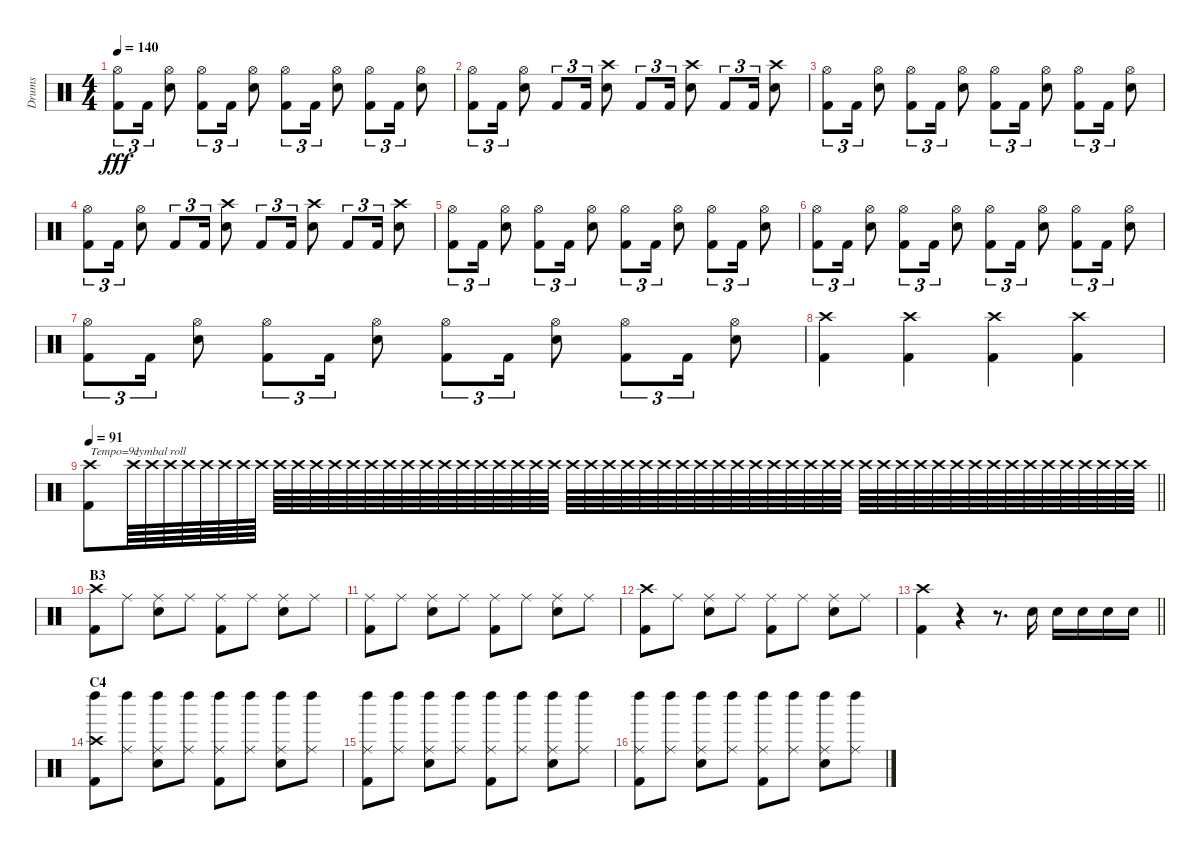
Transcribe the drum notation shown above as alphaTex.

\track ("Drums" "Drums") {instrument percussion}
\staff {score}
\articulation defaults
\ts (4 4)
\tempo 140
\clef neutral
\ks c
("Hi-Hat (open)" "Kick (hit) 2").8{tu (3 2) dy fff} "Kick (hit) 2".16{tu (3 2)} ("Hi-Hat (open)" "Snare (hit) 2").8 ("Hi-Hat (open)" "Kick (hit) 2").8{tu (3 2)} "Kick (hit) 2".16{tu (3 2)} ("Hi-Hat (open)" "Snare (hit) 2").8 ("Hi-Hat (open)" "Kick (hit) 2").8{tu (3 2)} "Kick (hit) 2".16{tu (3 2)} ("Hi-Hat (open)" "Snare (hit) 2").8 ("Hi-Hat (open)" "Kick (hit) 2").8{tu (3 2)} "Kick (hit) 2".16{tu (3 2)} ("Hi-Hat (open)" "Snare (hit) 2").8 |
("Hi-Hat (open)" "Kick (hit) 2").8{tu (3 2)} "Kick (hit) 2".16{tu (3 2)} ("Hi-Hat (open)" "Snare (hit) 2").8 "Kick (hit) 2".8{tu (3 2)} "Kick (hit) 2".16{tu (3 2)} ("Crash high (hit)" "Snare (hit) 2").8 "Kick (hit) 2".8{tu (3 2)} "Kick (hit) 2".16{tu (3 2)} ("Crash high (hit)" "Snare (hit) 2").8 "Kick (hit) 2".8{tu (3 2)} "Kick (hit) 2".16{tu (3 2)} ("Crash high (hit)" "Snare (hit) 2").8 |
("Hi-Hat (open)" "Kick (hit) 2").8{tu (3 2)} "Kick (hit) 2".16{tu (3 2)} ("Hi-Hat (open)" "Snare (hit) 2").8 ("Hi-Hat (open)" "Kick (hit) 2").8{tu (3 2)} "Kick (hit) 2".16{tu (3 2)} ("Hi-Hat (open)" "Snare (hit) 2").8 ("Hi-Hat (open)" "Kick (hit) 2").8{tu (3 2)} "Kick (hit) 2".16{tu (3 2)} ("Hi-Hat (open)" "Snare (hit) 2").8 ("Hi-Hat (open)" "Kick (hit) 2").8{tu (3 2)} "Kick (hit) 2".16{tu (3 2)} ("Hi-Hat (open)" "Snare (hit) 2").8 |
("Hi-Hat (open)" "Kick (hit) 2").8{tu (3 2)} "Kick (hit) 2".16{tu (3 2)} ("Hi-Hat (open)" "Snare (hit) 2").8 "Kick (hit) 2".8{tu (3 2)} "Kick (hit) 2".16{tu (3 2)} ("Crash high (hit)" "Snare (hit) 2").8 "Kick (hit) 2".8{tu (3 2)} "Kick (hit) 2".16{tu (3 2)} ("Crash high (hit)" "Snare (hit) 2").8 "Kick (hit) 2".8{tu (3 2)} "Kick (hit) 2".16{tu (3 2)} ("Crash high (hit)" "Snare (hit) 2").8 |
("Hi-Hat (open)" "Kick (hit) 2").8{tu (3 2)} "Kick (hit) 2".16{tu (3 2)} ("Hi-Hat (open)" "Snare (hit) 2").8 ("Hi-Hat (open)" "Kick (hit) 2").8{tu (3 2)} "Kick (hit) 2".16{tu (3 2)} ("Hi-Hat (open)" "Snare (hit) 2").8 ("Hi-Hat (open)" "Kick (hit) 2").8{tu (3 2)} "Kick (hit) 2".16{tu (3 2)} ("Hi-Hat (open)" "Snare (hit) 2").8 ("Hi-Hat (open)" "Kick (hit) 2").8{tu (3 2)} "Kick (hit) 2".16{tu (3 2)} ("Hi-Hat (open)" "Snare (hit) 2").8 |
("Hi-Hat (open)" "Kick (hit) 2").8{tu (3 2)} "Kick (hit) 2".16{tu (3 2)} ("Hi-Hat (open)" "Snare (hit) 2").8 ("Hi-Hat (open)" "Kick (hit) 2").8{tu (3 2)} "Kick (hit) 2".16{tu (3 2)} ("Hi-Hat (open)" "Snare (hit) 2").8 ("Hi-Hat (open)" "Kick (hit) 2").8{tu (3 2)} "Kick (hit) 2".16{tu (3 2)} ("Hi-Hat (open)" "Snare (hit) 2").8 ("Hi-Hat (open)" "Kick (hit) 2").8{tu (3 2)} "Kick (hit) 2".16{tu (3 2)} ("Hi-Hat (open)" "Snare (hit) 2").8 |
("Hi-Hat (open)" "Kick (hit) 2").8{tu (3 2)} "Kick (hit) 2".16{tu (3 2)} ("Hi-Hat (open)" "Snare (hit) 2").8 ("Hi-Hat (open)" "Kick (hit) 2").8{tu (3 2)} "Kick (hit) 2".16{tu (3 2)} ("Hi-Hat (open)" "Snare (hit) 2").8 ("Hi-Hat (open)" "Kick (hit) 2").8{tu (3 2)} "Kick (hit) 2".16{tu (3 2)} ("Hi-Hat (open)" "Snare (hit) 2").8 ("Hi-Hat (open)" "Kick (hit) 2").8{tu (3 2)} "Kick (hit) 2".16{tu (3 2)} ("Hi-Hat (open)" "Snare (hit) 2").8 |
("Crash high (hit)" "Kick (hit) 2").4 ("Crash high (hit)" "Kick (hit) 2").4 ("Crash high (hit)" "Kick (hit) 2").4 ("Crash high (hit)" "Kick (hit) 2").4 |
\tempo 91
\barLineRight lightlight
("Crash high (hit)" "Kick (hit) 2").8{txt "Tempo=91"} "Crash high (hit)".64{txt "cymbal roll"} "Crash high (hit)".64 "Crash high (hit)".64 "Crash high (hit)".64 "Crash high (hit)".64 "Crash high (hit)".64 "Crash high (hit)".64 "Crash high (hit)".64 "Crash high (hit)".64 "Crash high (hit)".64 "Crash high (hit)".64 "Crash high (hit)".64 "Crash high (hit)".64 "Crash high (hit)".64 "Crash high (hit)".64 "Crash high (hit)".64 "Crash high (hit)".64 "Crash high (hit)".64 "Crash high (hit)".64 "Crash high (hit)".64 "Crash high (hit)".64 "Crash high (hit)".64 "Crash high (hit)".64 "Crash high (hit)".64 "Crash high (hit)".64 "Crash high (hit)".64 "Crash high (hit)".64 "Crash high (hit)".64 "Crash high (hit)".64 "Crash high (hit)".64 "Crash high (hit)".64 "Crash high (hit)".64 "Crash high (hit)".64 "Crash high (hit)".64 "Crash high (hit)".64 "Crash high (hit)".64 "Crash high (hit)".64 "Crash high (hit)".64 "Crash high (hit)".64 "Crash high (hit)".64 "Crash high (hit)".64 "Crash high (hit)".64 "Crash high (hit)".64 "Crash high (hit)".64 "Crash high (hit)".64 "Crash high (hit)".64 "Crash high (hit)".64 "Crash high (hit)".64 "Crash high (hit)".64 "Crash high (hit)".64 "Crash high (hit)".64 "Crash high (hit)".64 "Crash high (hit)".64 "Crash high (hit)".64 "Crash high (hit)".64 "Crash high (hit)".64 |
\section ("" "B3")
("Crash high (hit)" "Kick (hit) 2").8 "Ride (middle)".8 ("Ride (middle)" "Snare (hit) 2").8 "Ride (middle)".8 ("Ride (middle)" "Kick (hit) 2").8 "Ride (middle)".8 ("Ride (middle)" "Snare (hit) 2").8 "Ride (middle)".8 |
("Ride (middle)" "Kick (hit) 2").8 "Ride (middle)".8 ("Ride (middle)" "Snare (hit) 2").8 "Ride (middle)".8 ("Ride (middle)" "Kick (hit) 2").8 "Ride (middle)".8 ("Ride (middle)" "Snare (hit) 2").8 "Ride (middle)".8 |
("Crash high (hit)" "Kick (hit) 2").8 "Ride (middle)".8 ("Ride (middle)" "Snare (hit) 2").8 "Ride (middle)".8 ("Ride (middle)" "Kick (hit) 2").8 "Ride (middle)".8 ("Ride (middle)" "Snare (hit) 2").8 "Ride (middle)".8 |
\barLineRight lightlight
("Crash high (hit)" "Kick (hit) 2").4 r.4 r.8{d} "Snare (hit) 2".16 "Snare (hit) 2".16 "Snare (hit) 2".16 "Snare (hit) 2".16 "Snare (hit) 2".16 |
\section ("" "C4")
("Left Maraca (hit)" "Crash high (hit)" "Kick (hit) 2").8 ("Left Maraca (hit)" "Ride (middle)").8 ("Left Maraca (hit)" "Ride (middle)" "Snare (hit) 2").8 ("Left Maraca (hit)" "Ride (middle)").8 ("Left Maraca (hit)" "Ride (middle)" "Kick (hit) 2").8 ("Left Maraca (hit)" "Ride (middle)").8 ("Left Maraca (hit)" "Ride (middle)" "Snare (hit) 2").8 ("Left Maraca (hit)" "Ride (middle)").8 |
("Left Maraca (hit)" "Ride (middle)" "Kick (hit) 2").8 ("Left Maraca (hit)" "Ride (middle)").8 ("Left Maraca (hit)" "Ride (middle)" "Snare (hit) 2").8 ("Left Maraca (hit)" "Ride (middle)").8 ("Left Maraca (hit)" "Ride (middle)" "Kick (hit) 2").8 ("Left Maraca (hit)" "Ride (middle)").8 ("Left Maraca (hit)" "Ride (middle)" "Snare (hit) 2").8 ("Left Maraca (hit)" "Ride (middle)").8 |
("Left Maraca (hit)" "Ride (middle)" "Kick (hit) 2").8 ("Left Maraca (hit)" "Ride (middle)").8 ("Left Maraca (hit)" "Ride (middle)" "Snare (hit) 2").8 ("Left Maraca (hit)" "Ride (middle)").8 ("Left Maraca (hit)" "Ride (middle)" "Kick (hit) 2").8 ("Left Maraca (hit)" "Ride (middle)").8 ("Left Maraca (hit)" "Ride (middle)" "Snare (hit) 2").8 ("Left Maraca (hit)" "Ride (middle)").8
